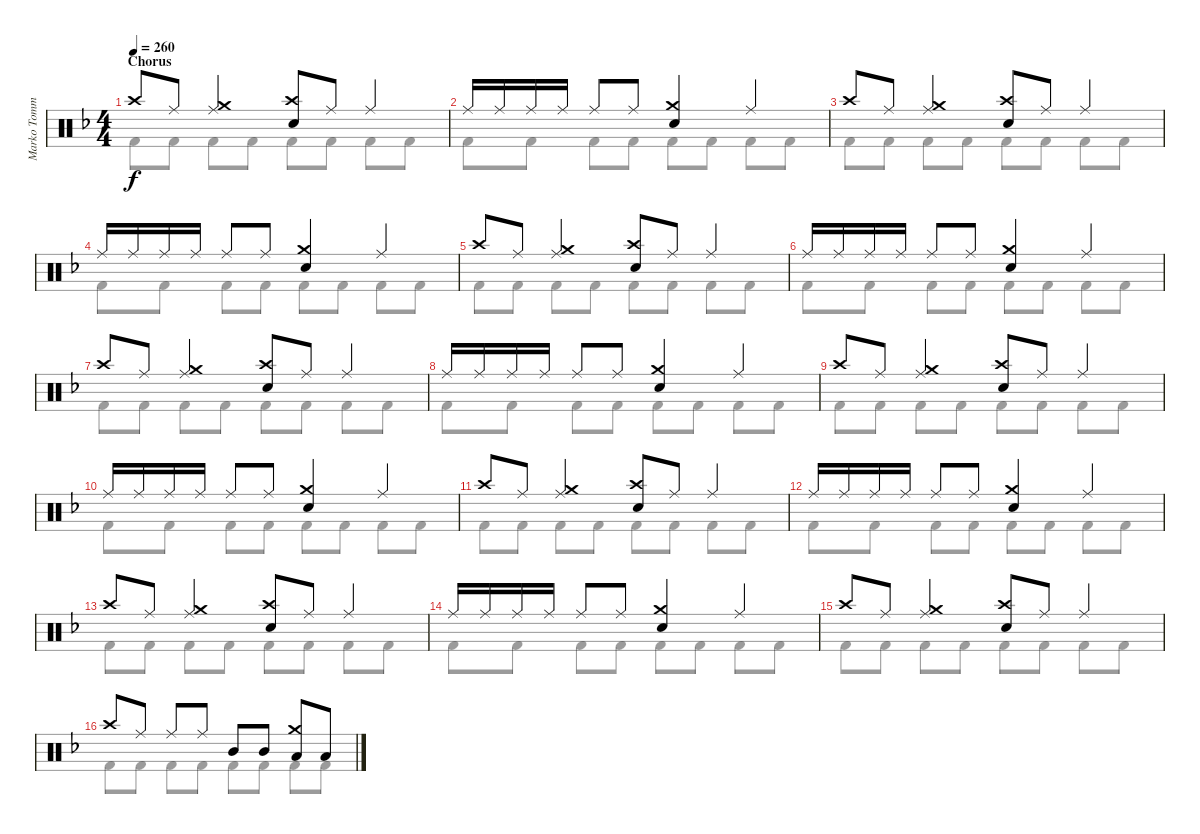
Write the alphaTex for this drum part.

\track ("Marko Tommila (drums)" "Marko Tomm") {instrument percussion}
\staff {score}
\articulation defaults
\voice
\ts (4 4)
\section ("" "Chorus ")
\tempo 260
\clef neutral
\ks dminor "Crash high (hit)".8{dy f} "Ride (middle)".8
("Ride (middle)" "Crash medium (hit)").4 ("Crash high (hit)" "Electric Snare (hit)").8 "Ride (middle)".8 "Ride (middle)".4 |
"Ride (middle)".16 "Ride (middle)".16 "Ride (middle)".16 "Ride (middle)".16 "Ride (middle)".8 "Ride (middle)".8 ("Crash medium (hit)" "Electric Snare (hit)").4 "Ride (middle)".4 |
"Crash high (hit)".8 "Ride (middle)".8 ("Ride (middle)" "Crash medium (hit)").4 ("Crash high (hit)" "Electric Snare (hit)").8 "Ride (middle)".8 "Ride (middle)".4 |
"Ride (middle)".16 "Ride (middle)".16 "Ride (middle)".16 "Ride (middle)".16 "Ride (middle)".8 "Ride (middle)".8 ("Crash medium (hit)" "Electric Snare (hit)").4 "Ride (middle)".4 |
"Crash high (hit)".8 "Ride (middle)".8 ("Ride (middle)" "Crash medium (hit)").4 ("Crash high (hit)" "Electric Snare (hit)").8 "Ride (middle)".8 "Ride (middle)".4 |
"Ride (middle)".16 "Ride (middle)".16 "Ride (middle)".16 "Ride (middle)".16 "Ride (middle)".8 "Ride (middle)".8 ("Crash medium (hit)" "Electric Snare (hit)").4 "Ride (middle)".4 |
"Crash high (hit)".8 "Ride (middle)".8 ("Ride (middle)" "Crash medium (hit)").4 ("Crash high (hit)" "Electric Snare (hit)").8 "Ride (middle)".8 "Ride (middle)".4 |
"Ride (middle)".16 "Ride (middle)".16 "Ride (middle)".16 "Ride (middle)".16 "Ride (middle)".8 "Ride (middle)".8 ("Crash medium (hit)" "Electric Snare (hit)").4 "Ride (middle)".4 |
"Crash high (hit)".8 "Ride (middle)".8 ("Ride (middle)" "Crash medium (hit)").4 ("Crash high (hit)" "Electric Snare (hit)").8 "Ride (middle)".8 "Ride (middle)".4 |
"Ride (middle)".16 "Ride (middle)".16 "Ride (middle)".16 "Ride (middle)".16 "Ride (middle)".8 "Ride (middle)".8 ("Crash medium (hit)" "Electric Snare (hit)").4 "Ride (middle)".4 |
"Crash high (hit)".8 "Ride (middle)".8 ("Ride (middle)" "Crash medium (hit)").4 ("Crash high (hit)" "Electric Snare (hit)").8 "Ride (middle)".8 "Ride (middle)".4 |
"Ride (middle)".16 "Ride (middle)".16 "Ride (middle)".16 "Ride (middle)".16 "Ride (middle)".8 "Ride (middle)".8 ("Crash medium (hit)" "Electric Snare (hit)").4 "Ride (middle)".4 |
"Crash high (hit)".8 "Ride (middle)".8 ("Ride (middle)" "Crash medium (hit)").4 ("Crash high (hit)" "Electric Snare (hit)").8 "Ride (middle)".8 "Ride (middle)".4 |
"Ride (middle)".16 "Ride (middle)".16 "Ride (middle)".16 "Ride (middle)".16 "Ride (middle)".8 "Ride (middle)".8 ("Crash medium (hit)" "Electric Snare (hit)").4 "Ride (middle)".4 |
"Crash high (hit)".8 "Ride (middle)".8 ("Ride (middle)" "Crash medium (hit)").4 ("Crash high (hit)" "Electric Snare (hit)").8 "Ride (middle)".8 "Ride (middle)".4 |
"Crash high (hit)".8 "Ride (middle)".8 "Ride (middle)".8 "Ride (middle)".8 "Mid Tom (hit)".8 "Mid Tom (hit)".8 ("Low Tom (hit)" "Crash medium (hit)").8 "Low Tom (hit)".8
\voice
\clef neutral
\ottava regular
\simile none
\ks dminor "Kick (hit) 2".8{dy f} "Kick (hit) 2".8 "Kick (hit) 2".8 "Kick (hit) 2".8 "Kick (hit) 2".8 "Kick (hit) 2".8 "Kick (hit) 2".8 "Kick (hit) 2".8
|
"Kick (hit) 2".8 "Kick (hit) 2".8 "Kick (hit) 2".8 "Kick (hit) 2".8 "Kick (hit) 2".8 "Kick (hit) 2".8 "Kick (hit) 2".8 "Kick (hit) 2".8 |
"Kick (hit) 2".8 "Kick (hit) 2".8 "Kick (hit) 2".8 "Kick (hit) 2".8 "Kick (hit) 2".8 "Kick (hit) 2".8 "Kick (hit) 2".8 "Kick (hit) 2".8 |
"Kick (hit) 2".8 "Kick (hit) 2".8 "Kick (hit) 2".8 "Kick (hit) 2".8 "Kick (hit) 2".8 "Kick (hit) 2".8 "Kick (hit) 2".8 "Kick (hit) 2".8 |
"Kick (hit) 2".8 "Kick (hit) 2".8 "Kick (hit) 2".8 "Kick (hit) 2".8 "Kick (hit) 2".8 "Kick (hit) 2".8 "Kick (hit) 2".8 "Kick (hit) 2".8 |
"Kick (hit) 2".8 "Kick (hit) 2".8 "Kick (hit) 2".8 "Kick (hit) 2".8 "Kick (hit) 2".8 "Kick (hit) 2".8 "Kick (hit) 2".8 "Kick (hit) 2".8 |
"Kick (hit) 2".8 "Kick (hit) 2".8 "Kick (hit) 2".8 "Kick (hit) 2".8 "Kick (hit) 2".8 "Kick (hit) 2".8 "Kick (hit) 2".8 "Kick (hit) 2".8 |
"Kick (hit) 2".8 "Kick (hit) 2".8 "Kick (hit) 2".8 "Kick (hit) 2".8 "Kick (hit) 2".8 "Kick (hit) 2".8 "Kick (hit) 2".8 "Kick (hit) 2".8 |
"Kick (hit) 2".8 "Kick (hit) 2".8 "Kick (hit) 2".8 "Kick (hit) 2".8 "Kick (hit) 2".8 "Kick (hit) 2".8 "Kick (hit) 2".8 "Kick (hit) 2".8 |
"Kick (hit) 2".8 "Kick (hit) 2".8 "Kick (hit) 2".8 "Kick (hit) 2".8 "Kick (hit) 2".8 "Kick (hit) 2".8 "Kick (hit) 2".8 "Kick (hit) 2".8 |
"Kick (hit) 2".8 "Kick (hit) 2".8 "Kick (hit) 2".8 "Kick (hit) 2".8 "Kick (hit) 2".8 "Kick (hit) 2".8 "Kick (hit) 2".8 "Kick (hit) 2".8 |
"Kick (hit) 2".8 "Kick (hit) 2".8 "Kick (hit) 2".8 "Kick (hit) 2".8 "Kick (hit) 2".8 "Kick (hit) 2".8 "Kick (hit) 2".8 "Kick (hit) 2".8 |
"Kick (hit) 2".8 "Kick (hit) 2".8 "Kick (hit) 2".8 "Kick (hit) 2".8 "Kick (hit) 2".8 "Kick (hit) 2".8 "Kick (hit) 2".8 "Kick (hit) 2".8 |
"Kick (hit) 2".8 "Kick (hit) 2".8 "Kick (hit) 2".8 "Kick (hit) 2".8 "Kick (hit) 2".8 "Kick (hit) 2".8 "Kick (hit) 2".8 "Kick (hit) 2".8 |
"Kick (hit) 2".8 "Kick (hit) 2".8 "Kick (hit) 2".8 "Kick (hit) 2".8 "Kick (hit) 2".8 "Kick (hit) 2".8 "Kick (hit) 2".8 "Kick (hit) 2".8 |
"Kick (hit) 2".8 "Kick (hit) 2".8 "Kick (hit) 2".8 "Kick (hit) 2".8 "Kick (hit) 2".8 "Kick (hit) 2".8 "Kick (hit) 2".8 "Kick (hit) 2".8
